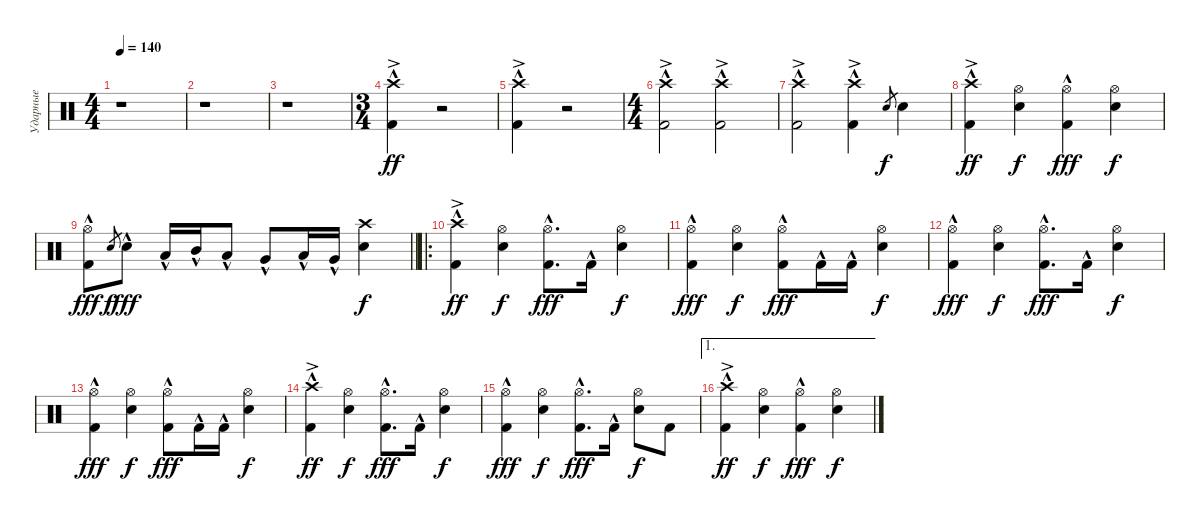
\track ("Ударные" "Ударные") {instrument percussion}
\staff {score}
\articulation defaults
\ts (4 4)
\tempo 140
\clef neutral
\ks c
r.1{dy f} |
r.1 |
r.1 |
\ts (3 4)
("Kick (hit) 2"{hac} "Crash high (hit)"{ac}).4{dy ff} r.2 |
("Kick (hit) 2"{hac} "Crash high (hit)"{ac}).4 r.2 |
\ts (4 4)
("Kick (hit) 2"{hac} "Crash high (hit)"{ac}).2 ("Kick (hit) 2"{hac} "Crash high (hit)"{ac}).2 |
("Kick (hit) 2"{hac} "Crash high (hit)"{ac}).2 ("Kick (hit) 2"{hac} "Crash high (hit)"{ac}).4 "Snare (hit) 2".8{gr dy f} "Snare (hit) 2".4 |
("Kick (hit) 2"{hac} "Crash high (hit)"{ac}).4{dy ff} ("Snare (hit) 2" "Hi-Hat (open)").4{dy f} ("Kick (hit) 2"{hac} "Hi-Hat (open)").4{dy fff} ("Snare (hit) 2" "Hi-Hat (open)").4{dy f} |
\barLineRight lightlight
("Kick (hit) 2"{hac} "Hi-Hat (open)").8{dy fff} "Electric Snare (hit)".8{gr dy f} "Electric Snare (hit)"{hac}.8{dy fff} "Low Tom (hit)"{hac}.16 "Mid Tom (hit)"{hac}.16 "Low Tom (hit)"{hac}.8 "Very Low Tom (hit)"{hac}.8 "Low Tom (hit)"{hac}.16 "Very Low Tom (hit)"{hac}.16 ("Snare (hit) 2" "Crash high (hit)").4{dy f} |
\ro
("Kick (hit) 2"{hac} "Crash high (hit)"{ac}).4{dy ff} ("Snare (hit) 2" "Hi-Hat (open)").4{dy f} ("Kick (hit) 2"{hac} "Hi-Hat (open)").8{d dy fff} "Kick (hit) 2"{hac}.16 ("Snare (hit) 2" "Hi-Hat (open)").4{dy f} |
("Kick (hit) 2"{hac} "Hi-Hat (open)").4{dy fff} ("Snare (hit) 2" "Hi-Hat (open)").4{dy f} ("Kick (hit) 2"{hac} "Hi-Hat (open)").8{dy fff} "Kick (hit) 2"{hac}.16 "Kick (hit) 2"{hac}.16 ("Snare (hit) 2" "Hi-Hat (open)").4{dy f} |
("Kick (hit) 2"{hac} "Hi-Hat (open)").4{dy fff} ("Snare (hit) 2" "Hi-Hat (open)").4{dy f} ("Kick (hit) 2"{hac} "Hi-Hat (open)").8{d dy fff} "Kick (hit) 2"{hac}.16 ("Snare (hit) 2" "Hi-Hat (open)").4{dy f} |
("Kick (hit) 2"{hac} "Hi-Hat (open)").4{dy fff} ("Snare (hit) 2" "Hi-Hat (open)").4{dy f} ("Kick (hit) 2"{hac} "Hi-Hat (open)").8{dy fff} "Kick (hit) 2"{hac}.16 "Kick (hit) 2"{hac}.16 ("Snare (hit) 2" "Hi-Hat (open)").4{dy f} |
("Kick (hit) 2"{hac} "Crash high (hit)"{ac}).4{dy ff} ("Snare (hit) 2" "Hi-Hat (open)").4{dy f} ("Kick (hit) 2"{hac} "Hi-Hat (open)").8{d dy fff} "Kick (hit) 2"{hac}.16 ("Snare (hit) 2" "Hi-Hat (open)").4{dy f} |
("Kick (hit) 2"{hac} "Hi-Hat (open)").4{dy fff} ("Snare (hit) 2" "Hi-Hat (open)").4{dy f} ("Kick (hit) 2"{hac} "Hi-Hat (open)").8{d dy fff} "Kick (hit) 2"{hac}.16 ("Snare (hit) 2" "Hi-Hat (open)").8{dy f} "Kick (hit) 2".8 |
\ae 1
("Kick (hit) 2"{hac} "Crash high (hit)"{ac}).4{dy ff} ("Snare (hit) 2" "Hi-Hat (open)").4{dy f} ("Kick (hit) 2"{hac} "Hi-Hat (open)").4{dy fff} ("Snare (hit) 2" "Hi-Hat (open)").4{dy f}
